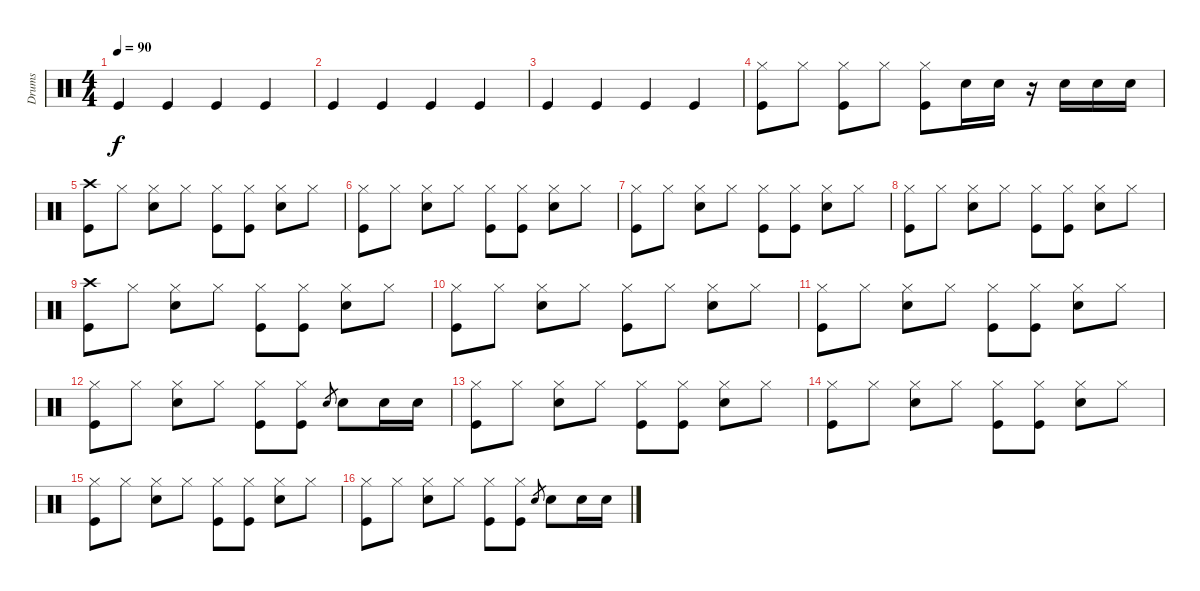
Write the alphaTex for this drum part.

\track ("Drums" "Drums") {instrument percussion}
\staff {score}
\articulation defaults
\ts (4 4)
\tempo 90
\clef neutral
\ks c "Kick (hit)".4{dy f} "Kick (hit)".4 "Kick (hit)".4 "Kick (hit)".4
|
"Kick (hit)".4 "Kick (hit)".4 "Kick (hit)".4 "Kick (hit)".4 |
"Kick (hit)".4 "Kick (hit)".4 "Kick (hit)".4 "Kick (hit)".4 |
("Hi-Hat (closed)" "Kick (hit)").8 "Hi-Hat (closed)".8 ("Hi-Hat (closed)" "Kick (hit)").8 "Hi-Hat (closed)".8 ("Hi-Hat (closed)" "Kick (hit)").8 "Snare (hit) 2".16 "Snare (hit) 2".16 r.16 "Snare (hit) 2".16 "Snare (hit) 2".16 "Snare (hit) 2".16 |
("Kick (hit)" "Crash high (hit)").8 "Hi-Hat (closed)".8 ("Snare (hit) 2" "Hi-Hat (closed)").8 "Hi-Hat (closed)".8 ("Kick (hit)" "Hi-Hat (closed)").8 ("Kick (hit)" "Hi-Hat (closed)").8 ("Snare (hit) 2" "Hi-Hat (closed)").8 "Hi-Hat (closed)".8 |
("Kick (hit)" "Hi-Hat (closed)").8 "Hi-Hat (closed)".8 ("Snare (hit) 2" "Hi-Hat (closed)").8 "Hi-Hat (closed)".8 ("Kick (hit)" "Hi-Hat (closed)").8 ("Kick (hit)" "Hi-Hat (closed)").8 ("Snare (hit) 2" "Hi-Hat (closed)").8 "Hi-Hat (closed)".8 |
("Kick (hit)" "Hi-Hat (closed)").8 "Hi-Hat (closed)".8 ("Snare (hit) 2" "Hi-Hat (closed)").8 "Hi-Hat (closed)".8 ("Kick (hit)" "Hi-Hat (closed)").8 ("Kick (hit)" "Hi-Hat (closed)").8 ("Snare (hit) 2" "Hi-Hat (closed)").8 "Hi-Hat (closed)".8 |
("Kick (hit)" "Hi-Hat (closed)").8 "Hi-Hat (closed)".8 ("Snare (hit) 2" "Hi-Hat (closed)").8 "Hi-Hat (closed)".8 ("Kick (hit)" "Hi-Hat (closed)").8 ("Kick (hit)" "Hi-Hat (closed)").8 ("Snare (hit) 2" "Hi-Hat (closed)").8 "Hi-Hat (closed)".8 |
("Kick (hit)" "Crash high (hit)").8 "Hi-Hat (closed)".8 ("Snare (hit) 2" "Hi-Hat (closed)").8 "Hi-Hat (closed)".8 ("Kick (hit)" "Hi-Hat (closed)").8 ("Kick (hit)" "Hi-Hat (closed)").8 ("Snare (hit) 2" "Hi-Hat (closed)").8 "Hi-Hat (closed)".8 |
("Kick (hit)" "Hi-Hat (closed)").8 "Hi-Hat (closed)".8 ("Snare (hit) 2" "Hi-Hat (closed)").8 "Hi-Hat (closed)".8 ("Kick (hit)" "Hi-Hat (closed)").8 "Hi-Hat (closed)".8 ("Snare (hit) 2" "Hi-Hat (closed)").8 "Hi-Hat (closed)".8 |
("Kick (hit)" "Hi-Hat (closed)").8 "Hi-Hat (closed)".8 ("Snare (hit) 2" "Hi-Hat (closed)").8 "Hi-Hat (closed)".8 ("Kick (hit)" "Hi-Hat (closed)").8 ("Kick (hit)" "Hi-Hat (closed)").8 ("Snare (hit) 2" "Hi-Hat (closed)").8 "Hi-Hat (closed)".8 |
("Kick (hit)" "Hi-Hat (closed)").8 "Hi-Hat (closed)".8 ("Snare (hit) 2" "Hi-Hat (closed)").8 "Hi-Hat (closed)".8 ("Kick (hit)" "Hi-Hat (closed)").8 ("Kick (hit)" "Hi-Hat (closed)").8 "Snare (hit) 2"{h}.8{gr} "Snare (hit) 2".8 "Snare (hit) 2".16 "Snare (hit) 2".16 |
("Kick (hit)" "Hi-Hat (closed)").8 "Hi-Hat (closed)".8 ("Snare (hit) 2" "Hi-Hat (closed)").8 "Hi-Hat (closed)".8 ("Kick (hit)" "Hi-Hat (closed)").8 ("Kick (hit)" "Hi-Hat (closed)").8 ("Snare (hit) 2" "Hi-Hat (closed)").8 "Hi-Hat (closed)".8 |
("Kick (hit)" "Hi-Hat (closed)").8 "Hi-Hat (closed)".8 ("Snare (hit) 2" "Hi-Hat (closed)").8 "Hi-Hat (closed)".8 ("Kick (hit)" "Hi-Hat (closed)").8 ("Kick (hit)" "Hi-Hat (closed)").8 ("Snare (hit) 2" "Hi-Hat (closed)").8 "Hi-Hat (closed)".8 |
("Kick (hit)" "Hi-Hat (closed)").8 "Hi-Hat (closed)".8 ("Snare (hit) 2" "Hi-Hat (closed)").8 "Hi-Hat (closed)".8 ("Kick (hit)" "Hi-Hat (closed)").8 ("Kick (hit)" "Hi-Hat (closed)").8 ("Snare (hit) 2" "Hi-Hat (closed)").8 "Hi-Hat (closed)".8 |
("Kick (hit)" "Hi-Hat (closed)").8 "Hi-Hat (closed)".8 ("Snare (hit) 2" "Hi-Hat (closed)").8 "Hi-Hat (closed)".8 ("Kick (hit)" "Hi-Hat (closed)").8 ("Kick (hit)" "Hi-Hat (closed)").8 "Snare (hit) 2"{h}.8{gr} "Snare (hit) 2".8 "Snare (hit) 2".16 "Snare (hit) 2".16
